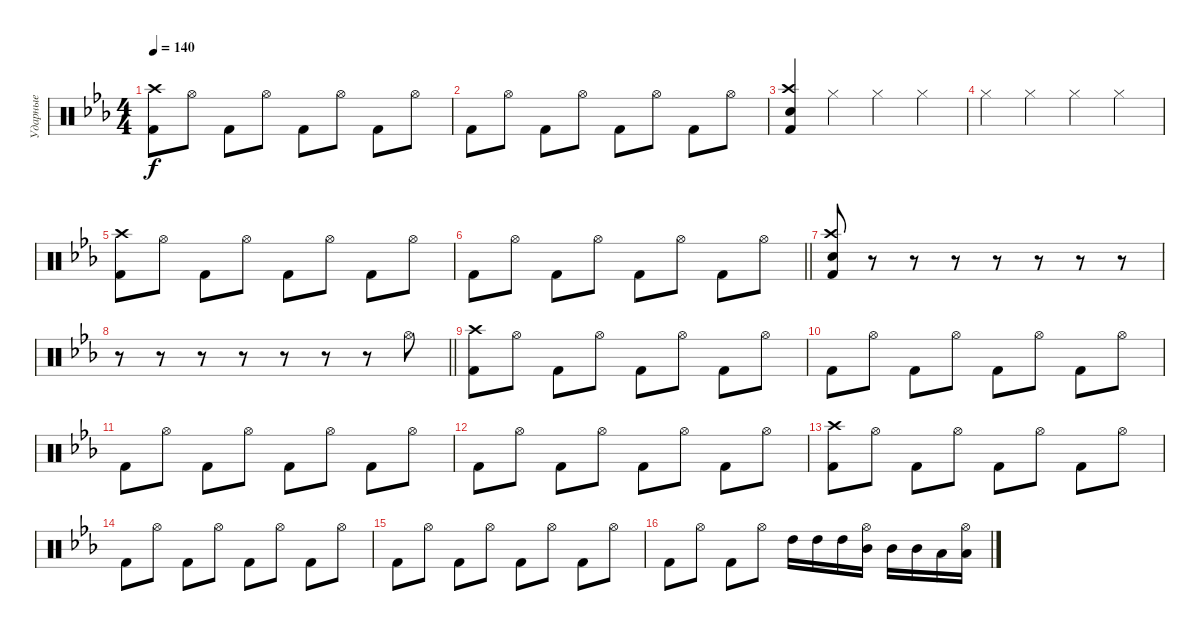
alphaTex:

\track ("Ударные" "Ударные") {instrument percussion}
\staff {score}
\articulation defaults
\ts (4 4)
\tempo 140
\clef neutral
\ks cminor
("Kick (hit) 2" "Crash high (hit)").8{dy f} "Hi-Hat (open)".8 "Kick (hit) 2".8 "Hi-Hat (open)".8 "Kick (hit) 2".8 "Hi-Hat (open)".8 "Kick (hit) 2".8 "Hi-Hat (open)".8 |
"Kick (hit) 2".8 "Hi-Hat (open)".8 "Kick (hit) 2".8 "Hi-Hat (open)".8 "Kick (hit) 2".8 "Hi-Hat (open)".8 "Kick (hit) 2".8 "Hi-Hat (open)".8 |
("Kick (hit) 2" "Crash high (hit)" "Snare (hit) 2").4 "Hi-Hat (closed)".4 "Hi-Hat (closed)".4 "Hi-Hat (closed)".4 |
"Hi-Hat (closed)".4 "Hi-Hat (closed)".4 "Hi-Hat (closed)".4 "Hi-Hat (closed)".4 |
("Kick (hit) 2" "Crash high (hit)").8 "Hi-Hat (open)".8 "Kick (hit) 2".8 "Hi-Hat (open)".8 "Kick (hit) 2".8 "Hi-Hat (open)".8 "Kick (hit) 2".8 "Hi-Hat (open)".8 |
\barLineRight lightlight "Kick (hit) 2".8 "Hi-Hat (open)".8 "Kick (hit) 2".8 "Hi-Hat (open)".8 "Kick (hit) 2".8 "Hi-Hat (open)".8 "Kick (hit) 2".8 "Hi-Hat (open)".8
|
\section ("" "")
("Kick (hit) 2" "Crash high (hit)" "Snare (hit) 2").8 r.8 r.8 r.8 r.8 r.8 r.8 r.8 |
\barLineRight lightlight
r.8 r.8 r.8 r.8 r.8 r.8 r.8 "Hi-Hat (open)".8 |
("Kick (hit) 2" "Crash high (hit)").8 "Hi-Hat (open)".8 "Kick (hit) 2".8 "Hi-Hat (open)".8 "Kick (hit) 2".8 "Hi-Hat (open)".8 "Kick (hit) 2".8 "Hi-Hat (open)".8 |
"Kick (hit) 2".8 "Hi-Hat (open)".8 "Kick (hit) 2".8 "Hi-Hat (open)".8 "Kick (hit) 2".8 "Hi-Hat (open)".8 "Kick (hit) 2".8 "Hi-Hat (open)".8 |
"Kick (hit) 2".8 "Hi-Hat (open)".8 "Kick (hit) 2".8 "Hi-Hat (open)".8 "Kick (hit) 2".8 "Hi-Hat (open)".8 "Kick (hit) 2".8 "Hi-Hat (open)".8 |
"Kick (hit) 2".8 "Hi-Hat (open)".8 "Kick (hit) 2".8 "Hi-Hat (open)".8 "Kick (hit) 2".8 "Hi-Hat (open)".8 "Kick (hit) 2".8 "Hi-Hat (open)".8 |
("Kick (hit) 2" "Crash high (hit)").8 "Hi-Hat (open)".8 "Kick (hit) 2".8 "Hi-Hat (open)".8 "Kick (hit) 2".8 "Hi-Hat (open)".8 "Kick (hit) 2".8 "Hi-Hat (open)".8 |
"Kick (hit) 2".8 "Hi-Hat (open)".8 "Kick (hit) 2".8 "Hi-Hat (open)".8 "Kick (hit) 2".8 "Hi-Hat (open)".8 "Kick (hit) 2".8 "Hi-Hat (open)".8 |
"Kick (hit) 2".8 "Hi-Hat (open)".8 "Kick (hit) 2".8 "Hi-Hat (open)".8 "Kick (hit) 2".8 "Hi-Hat (open)".8 "Kick (hit) 2".8 "Hi-Hat (open)".8 |
"Kick (hit) 2".8 "Hi-Hat (open)".8 "Kick (hit) 2".8 "Hi-Hat (open)".8 "High Tom (hit)".16 "High Tom (hit)".16 "High Tom (hit)".16 ("Hi-Hat (open)" "Mid Tom (hit)").16 "Mid Tom (hit)".16 "Mid Tom (hit)".16 "Low Tom (hit)".16 ("Hi-Hat (open)" "Low Tom (hit)").16
